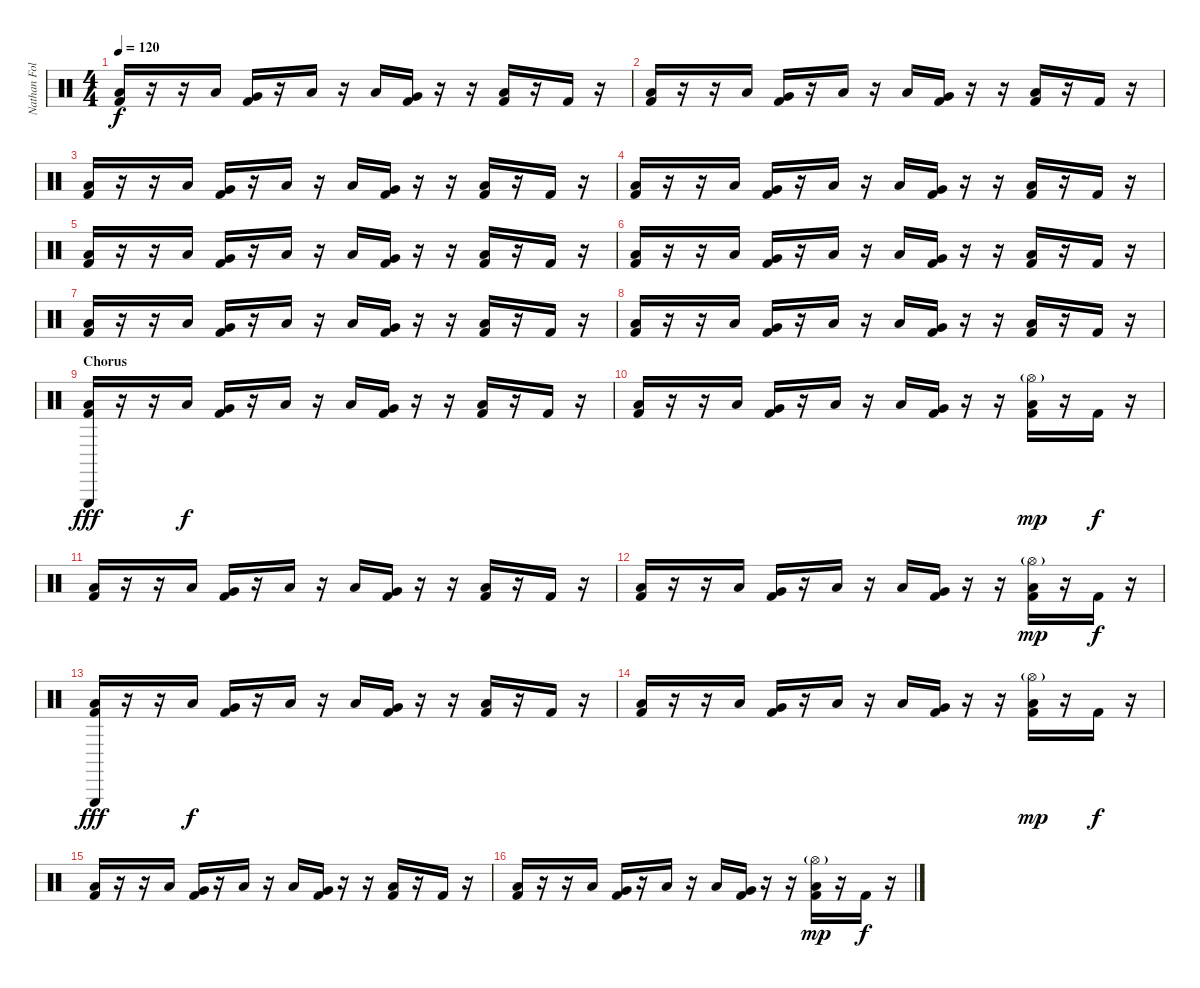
\track ("Nathan Followill - Drums" "Nathan Fol") {instrument percussion}
\staff {score}
\articulation defaults
\ts (4 4)
\tempo 120
\clef neutral
\ks c
("Low Tom (hit)" "Kick (hit) 2").16{dy f} r.16 r.16 "Low Tom (hit)".16 ("Very Low Tom (hit)" "Kick (hit) 2").16 r.16 "Low Tom (hit)".16 r.16 "Low Tom (hit)".16 ("Very Low Tom (hit)" "Kick (hit) 2").16 r.16 r.16 ("Low Tom (hit)" "Kick (hit) 2").16 r.16 "Kick (hit) 2".16 r.16 |
("Low Tom (hit)" "Kick (hit) 2").16 r.16 r.16 "Low Tom (hit)".16 ("Very Low Tom (hit)" "Kick (hit) 2").16 r.16 "Low Tom (hit)".16 r.16 "Low Tom (hit)".16 ("Very Low Tom (hit)" "Kick (hit) 2").16 r.16 r.16 ("Low Tom (hit)" "Kick (hit) 2").16 r.16 "Kick (hit) 2".16 r.16 |
("Low Tom (hit)" "Kick (hit) 2").16 r.16 r.16 "Low Tom (hit)".16 ("Very Low Tom (hit)" "Kick (hit) 2").16 r.16 "Low Tom (hit)".16 r.16 "Low Tom (hit)".16 ("Very Low Tom (hit)" "Kick (hit) 2").16 r.16 r.16 ("Low Tom (hit)" "Kick (hit) 2").16 r.16 "Kick (hit) 2".16 r.16 |
("Low Tom (hit)" "Kick (hit) 2").16 r.16 r.16 "Low Tom (hit)".16 ("Very Low Tom (hit)" "Kick (hit) 2").16 r.16 "Low Tom (hit)".16 r.16 "Low Tom (hit)".16 ("Very Low Tom (hit)" "Kick (hit) 2").16 r.16 r.16 ("Low Tom (hit)" "Kick (hit) 2").16 r.16 "Kick (hit) 2".16 r.16 |
("Low Tom (hit)" "Kick (hit) 2").16 r.16 r.16 "Low Tom (hit)".16 ("Very Low Tom (hit)" "Kick (hit) 2").16 r.16 "Low Tom (hit)".16 r.16 "Low Tom (hit)".16 ("Very Low Tom (hit)" "Kick (hit) 2").16 r.16 r.16 ("Low Tom (hit)" "Kick (hit) 2").16 r.16 "Kick (hit) 2".16 r.16 |
("Low Tom (hit)" "Kick (hit) 2").16 r.16 r.16 "Low Tom (hit)".16 ("Very Low Tom (hit)" "Kick (hit) 2").16 r.16 "Low Tom (hit)".16 r.16 "Low Tom (hit)".16 ("Very Low Tom (hit)" "Kick (hit) 2").16 r.16 r.16 ("Low Tom (hit)" "Kick (hit) 2").16 r.16 "Kick (hit) 2".16 r.16 |
("Low Tom (hit)" "Kick (hit) 2").16 r.16 r.16 "Low Tom (hit)".16 ("Very Low Tom (hit)" "Kick (hit) 2").16 r.16 "Low Tom (hit)".16 r.16 "Low Tom (hit)".16 ("Very Low Tom (hit)" "Kick (hit) 2").16 r.16 r.16 ("Low Tom (hit)" "Kick (hit) 2").16 r.16 "Kick (hit) 2".16 r.16 |
("Low Tom (hit)" "Kick (hit) 2").16 r.16 r.16 "Low Tom (hit)".16 ("Very Low Tom (hit)" "Kick (hit) 2").16 r.16 "Low Tom (hit)".16 r.16 "Low Tom (hit)".16 ("Very Low Tom (hit)" "Kick (hit) 2").16 r.16 r.16 ("Low Tom (hit)" "Kick (hit) 2").16 r.16 "Kick (hit) 2".16 r.16 |
\section ("" "Chorus")
("Triangle (hit)" "Low Tom (hit)" "Kick (hit) 2").16{dy fff} r.16 r.16 "Low Tom (hit)".16{dy f} ("Very Low Tom (hit)" "Kick (hit) 2").16 r.16 "Low Tom (hit)".16 r.16 "Low Tom (hit)".16 ("Very Low Tom (hit)" "Kick (hit) 2").16 r.16 r.16 ("Low Tom (hit)" "Kick (hit) 2").16 r.16 "Kick (hit) 2".16 r.16 |
("Low Tom (hit)" "Kick (hit) 2").16 r.16 r.16 "Low Tom (hit)".16 ("Very Low Tom (hit)" "Kick (hit) 2").16 r.16 "Low Tom (hit)".16 r.16 "Low Tom (hit)".16 ("Very Low Tom (hit)" "Kick (hit) 2").16 r.16 r.16 ("Hi-Hat (open)"{g} "Low Tom (hit)" "Kick (hit) 2").16{dy mp} r.16 "Kick (hit) 2".16{dy f} r.16 |
("Low Tom (hit)" "Kick (hit) 2").16 r.16 r.16 "Low Tom (hit)".16 ("Very Low Tom (hit)" "Kick (hit) 2").16 r.16 "Low Tom (hit)".16 r.16 "Low Tom (hit)".16 ("Very Low Tom (hit)" "Kick (hit) 2").16 r.16 r.16 ("Low Tom (hit)" "Kick (hit) 2").16 r.16 "Kick (hit) 2".16 r.16 |
("Low Tom (hit)" "Kick (hit) 2").16 r.16 r.16 "Low Tom (hit)".16 ("Very Low Tom (hit)" "Kick (hit) 2").16 r.16 "Low Tom (hit)".16 r.16 "Low Tom (hit)".16 ("Very Low Tom (hit)" "Kick (hit) 2").16 r.16 r.16 ("Hi-Hat (open)"{g} "Low Tom (hit)" "Kick (hit) 2").16{dy mp} r.16 "Kick (hit) 2".16{dy f} r.16 |
("Triangle (hit)" "Low Tom (hit)" "Kick (hit) 2").16{dy fff} r.16 r.16 "Low Tom (hit)".16{dy f} ("Very Low Tom (hit)" "Kick (hit) 2").16 r.16 "Low Tom (hit)".16 r.16 "Low Tom (hit)".16 ("Very Low Tom (hit)" "Kick (hit) 2").16 r.16 r.16 ("Low Tom (hit)" "Kick (hit) 2").16 r.16 "Kick (hit) 2".16 r.16 |
("Low Tom (hit)" "Kick (hit) 2").16 r.16 r.16 "Low Tom (hit)".16 ("Very Low Tom (hit)" "Kick (hit) 2").16 r.16 "Low Tom (hit)".16 r.16 "Low Tom (hit)".16 ("Very Low Tom (hit)" "Kick (hit) 2").16 r.16 r.16 ("Hi-Hat (open)"{g} "Low Tom (hit)" "Kick (hit) 2").16{dy mp} r.16 "Kick (hit) 2".16{dy f} r.16 |
("Low Tom (hit)" "Kick (hit) 2").16 r.16 r.16 "Low Tom (hit)".16 ("Very Low Tom (hit)" "Kick (hit) 2").16 r.16 "Low Tom (hit)".16 r.16 "Low Tom (hit)".16 ("Very Low Tom (hit)" "Kick (hit) 2").16 r.16 r.16 ("Low Tom (hit)" "Kick (hit) 2").16 r.16 "Kick (hit) 2".16 r.16 |
("Low Tom (hit)" "Kick (hit) 2").16 r.16 r.16 "Low Tom (hit)".16 ("Very Low Tom (hit)" "Kick (hit) 2").16 r.16 "Low Tom (hit)".16 r.16 "Low Tom (hit)".16 ("Very Low Tom (hit)" "Kick (hit) 2").16 r.16 r.16 ("Hi-Hat (open)"{g} "Low Tom (hit)" "Kick (hit) 2").16{dy mp} r.16 "Kick (hit) 2".16{dy f} r.16
